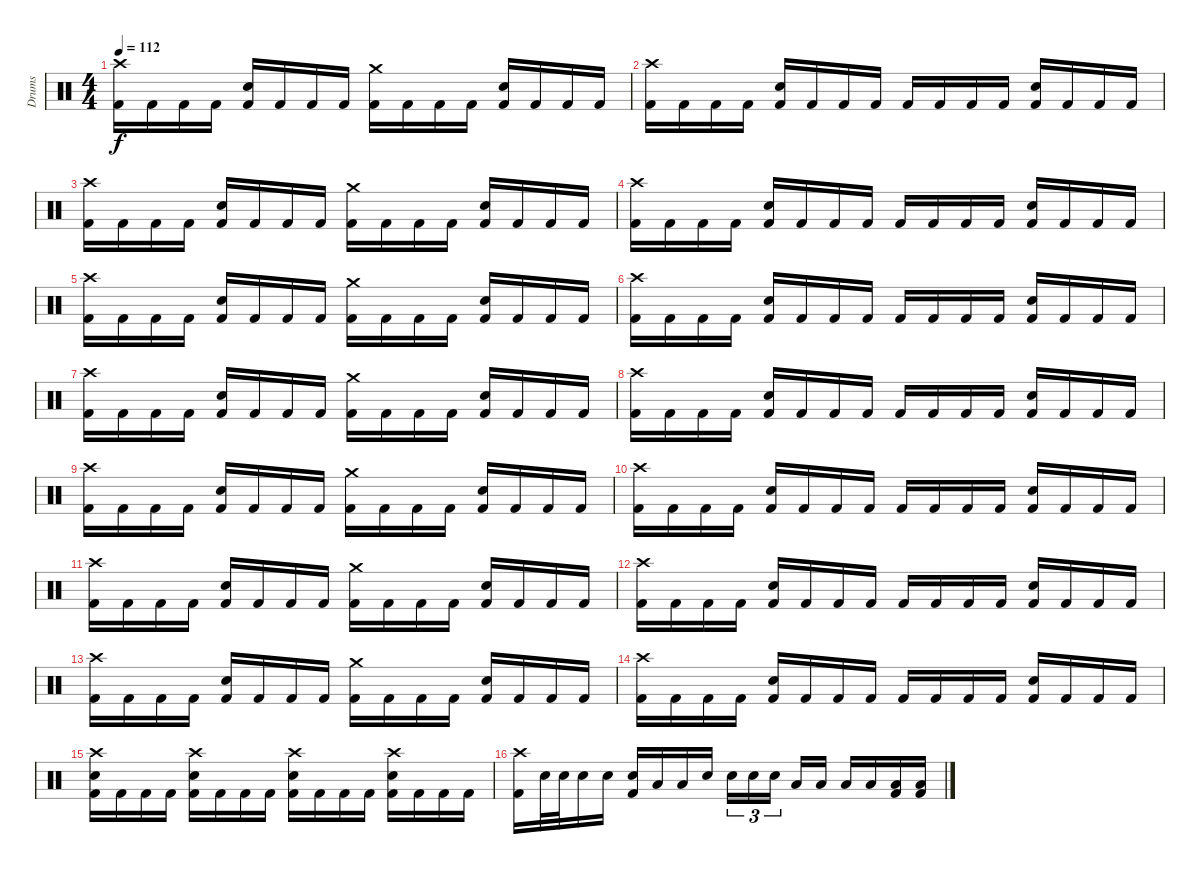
\track ("Drums" "Drums") {instrument percussion}
\staff {score}
\articulation defaults
\ts (4 4)
\tempo 112
\clef neutral
\ks c
("Crash high (hit)" "Kick (hit) 2").16{dy f} "Kick (hit) 2".16 "Kick (hit) 2".16 "Kick (hit) 2".16 ("Snare (hit) 2" "Kick (hit) 2").16 "Kick (hit) 2".16 "Kick (hit) 2".16 "Kick (hit) 2".16 ("Crash medium (hit)" "Kick (hit) 2").16 "Kick (hit) 2".16 "Kick (hit) 2".16 "Kick (hit) 2".16 ("Snare (hit) 2" "Kick (hit) 2").16 "Kick (hit) 2".16 "Kick (hit) 2".16 "Kick (hit) 2".16 |
("Crash high (hit)" "Kick (hit) 2").16 "Kick (hit) 2".16 "Kick (hit) 2".16 "Kick (hit) 2".16 ("Snare (hit) 2" "Kick (hit) 2").16 "Kick (hit) 2".16 "Kick (hit) 2".16 "Kick (hit) 2".16 "Kick (hit) 2".16 "Kick (hit) 2".16 "Kick (hit) 2".16 "Kick (hit) 2".16 ("Snare (hit) 2" "Kick (hit) 2").16 "Kick (hit) 2".16 "Kick (hit) 2".16 "Kick (hit) 2".16 |
("Crash high (hit)" "Kick (hit) 2").16 "Kick (hit) 2".16 "Kick (hit) 2".16 "Kick (hit) 2".16 ("Snare (hit) 2" "Kick (hit) 2").16 "Kick (hit) 2".16 "Kick (hit) 2".16 "Kick (hit) 2".16 ("Crash medium (hit)" "Kick (hit) 2").16 "Kick (hit) 2".16 "Kick (hit) 2".16 "Kick (hit) 2".16 ("Snare (hit) 2" "Kick (hit) 2").16 "Kick (hit) 2".16 "Kick (hit) 2".16 "Kick (hit) 2".16 |
("Crash high (hit)" "Kick (hit) 2").16 "Kick (hit) 2".16 "Kick (hit) 2".16 "Kick (hit) 2".16 ("Snare (hit) 2" "Kick (hit) 2").16 "Kick (hit) 2".16 "Kick (hit) 2".16 "Kick (hit) 2".16 "Kick (hit) 2".16 "Kick (hit) 2".16 "Kick (hit) 2".16 "Kick (hit) 2".16 ("Snare (hit) 2" "Kick (hit) 2").16 "Kick (hit) 2".16 "Kick (hit) 2".16 "Kick (hit) 2".16 |
("Crash high (hit)" "Kick (hit) 2").16 "Kick (hit) 2".16 "Kick (hit) 2".16 "Kick (hit) 2".16 ("Snare (hit) 2" "Kick (hit) 2").16 "Kick (hit) 2".16 "Kick (hit) 2".16 "Kick (hit) 2".16 ("Crash medium (hit)" "Kick (hit) 2").16 "Kick (hit) 2".16 "Kick (hit) 2".16 "Kick (hit) 2".16 ("Snare (hit) 2" "Kick (hit) 2").16 "Kick (hit) 2".16 "Kick (hit) 2".16 "Kick (hit) 2".16 |
("Crash high (hit)" "Kick (hit) 2").16 "Kick (hit) 2".16 "Kick (hit) 2".16 "Kick (hit) 2".16 ("Snare (hit) 2" "Kick (hit) 2").16 "Kick (hit) 2".16 "Kick (hit) 2".16 "Kick (hit) 2".16 "Kick (hit) 2".16 "Kick (hit) 2".16 "Kick (hit) 2".16 "Kick (hit) 2".16 ("Snare (hit) 2" "Kick (hit) 2").16 "Kick (hit) 2".16 "Kick (hit) 2".16 "Kick (hit) 2".16 |
("Crash high (hit)" "Kick (hit) 2").16 "Kick (hit) 2".16 "Kick (hit) 2".16 "Kick (hit) 2".16 ("Snare (hit) 2" "Kick (hit) 2").16 "Kick (hit) 2".16 "Kick (hit) 2".16 "Kick (hit) 2".16 ("Crash medium (hit)" "Kick (hit) 2").16 "Kick (hit) 2".16 "Kick (hit) 2".16 "Kick (hit) 2".16 ("Snare (hit) 2" "Kick (hit) 2").16 "Kick (hit) 2".16 "Kick (hit) 2".16 "Kick (hit) 2".16 |
("Crash high (hit)" "Kick (hit) 2").16 "Kick (hit) 2".16 "Kick (hit) 2".16 "Kick (hit) 2".16 ("Snare (hit) 2" "Kick (hit) 2").16 "Kick (hit) 2".16 "Kick (hit) 2".16 "Kick (hit) 2".16 "Kick (hit) 2".16 "Kick (hit) 2".16 "Kick (hit) 2".16 "Kick (hit) 2".16 ("Snare (hit) 2" "Kick (hit) 2").16 "Kick (hit) 2".16 "Kick (hit) 2".16 "Kick (hit) 2".16 |
("Crash high (hit)" "Kick (hit) 2").16 "Kick (hit) 2".16 "Kick (hit) 2".16 "Kick (hit) 2".16 ("Snare (hit) 2" "Kick (hit) 2").16 "Kick (hit) 2".16 "Kick (hit) 2".16 "Kick (hit) 2".16 ("Crash medium (hit)" "Kick (hit) 2").16 "Kick (hit) 2".16 "Kick (hit) 2".16 "Kick (hit) 2".16 ("Snare (hit) 2" "Kick (hit) 2").16 "Kick (hit) 2".16 "Kick (hit) 2".16 "Kick (hit) 2".16 |
("Crash high (hit)" "Kick (hit) 2").16 "Kick (hit) 2".16 "Kick (hit) 2".16 "Kick (hit) 2".16 ("Snare (hit) 2" "Kick (hit) 2").16 "Kick (hit) 2".16 "Kick (hit) 2".16 "Kick (hit) 2".16 "Kick (hit) 2".16 "Kick (hit) 2".16 "Kick (hit) 2".16 "Kick (hit) 2".16 ("Snare (hit) 2" "Kick (hit) 2").16 "Kick (hit) 2".16 "Kick (hit) 2".16 "Kick (hit) 2".16 |
("Crash high (hit)" "Kick (hit) 2").16 "Kick (hit) 2".16 "Kick (hit) 2".16 "Kick (hit) 2".16 ("Snare (hit) 2" "Kick (hit) 2").16 "Kick (hit) 2".16 "Kick (hit) 2".16 "Kick (hit) 2".16 ("Crash medium (hit)" "Kick (hit) 2").16 "Kick (hit) 2".16 "Kick (hit) 2".16 "Kick (hit) 2".16 ("Snare (hit) 2" "Kick (hit) 2").16 "Kick (hit) 2".16 "Kick (hit) 2".16 "Kick (hit) 2".16 |
("Crash high (hit)" "Kick (hit) 2").16 "Kick (hit) 2".16 "Kick (hit) 2".16 "Kick (hit) 2".16 ("Snare (hit) 2" "Kick (hit) 2").16 "Kick (hit) 2".16 "Kick (hit) 2".16 "Kick (hit) 2".16 "Kick (hit) 2".16 "Kick (hit) 2".16 "Kick (hit) 2".16 "Kick (hit) 2".16 ("Snare (hit) 2" "Kick (hit) 2").16 "Kick (hit) 2".16 "Kick (hit) 2".16 "Kick (hit) 2".16 |
("Crash high (hit)" "Kick (hit) 2").16 "Kick (hit) 2".16 "Kick (hit) 2".16 "Kick (hit) 2".16 ("Snare (hit) 2" "Kick (hit) 2").16 "Kick (hit) 2".16 "Kick (hit) 2".16 "Kick (hit) 2".16 ("Crash medium (hit)" "Kick (hit) 2").16 "Kick (hit) 2".16 "Kick (hit) 2".16 "Kick (hit) 2".16 ("Snare (hit) 2" "Kick (hit) 2").16 "Kick (hit) 2".16 "Kick (hit) 2".16 "Kick (hit) 2".16 |
("Crash high (hit)" "Kick (hit) 2").16 "Kick (hit) 2".16 "Kick (hit) 2".16 "Kick (hit) 2".16 ("Snare (hit) 2" "Kick (hit) 2").16 "Kick (hit) 2".16 "Kick (hit) 2".16 "Kick (hit) 2".16 "Kick (hit) 2".16 "Kick (hit) 2".16 "Kick (hit) 2".16 "Kick (hit) 2".16 ("Snare (hit) 2" "Kick (hit) 2").16 "Kick (hit) 2".16 "Kick (hit) 2".16 "Kick (hit) 2".16 |
("Crash high (hit)" "Snare (hit) 2" "Kick (hit) 2").16 "Kick (hit) 2".16 "Kick (hit) 2".16 "Kick (hit) 2".16 ("Crash high (hit)" "Snare (hit) 2" "Kick (hit) 2").16 "Kick (hit) 2".16 "Kick (hit) 2".16 "Kick (hit) 2".16 ("Crash high (hit)" "Snare (hit) 2" "Kick (hit) 2").16 "Kick (hit) 2".16 "Kick (hit) 2".16 "Kick (hit) 2".16 ("Crash high (hit)" "Snare (hit) 2" "Kick (hit) 2").16 "Kick (hit) 2".16 "Kick (hit) 2".16 "Kick (hit) 2".16 |
("Crash high (hit)" "Kick (hit) 2").16 "Snare (hit) 2".32 "Snare (hit) 2".32 "Snare (hit) 2".16 "Snare (hit) 2".16 ("Snare (hit) 2" "Kick (hit) 2").16 "Low Tom (hit)".16 "Low Tom (hit)".16 "Snare (hit) 2".16 "Snare (hit) 2".16{tu (3 2)} "Snare (hit) 2".16{tu (3 2)} "Snare (hit) 2".16{tu (3 2)} "Low Tom (hit)".16 "Low Tom (hit)".16 "Low Floor Tom (hit)".16 "Low Floor Tom (hit)".16 ("Low Floor Tom (hit)" "Kick (hit) 2").16 ("Low Floor Tom (hit)" "Kick (hit) 2").16
